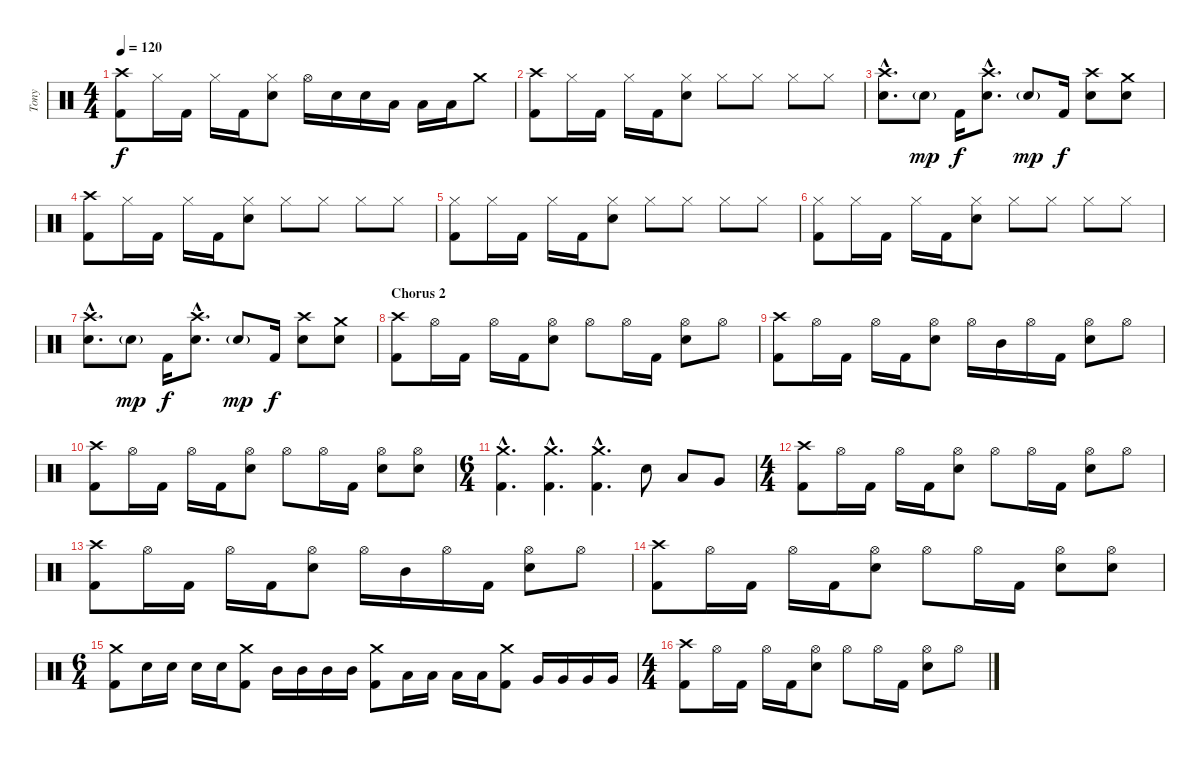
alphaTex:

\track ("Tony" "Tony") {instrument percussion}
\staff {score}
\articulation defaults
\ts (4 4)
\tempo 120
\clef neutral
\ks c
("Crash high (hit)" "Kick (hit) 2").8{dy f} "Hi-Hat (closed)".16 "Kick (hit) 2".16 "Hi-Hat (closed)".16 "Kick (hit) 2".16 ("Hi-Hat (closed)" "Snare (hit) 2").8 "Hi-Hat (open)".16 "Snare (hit) 2".16 "Snare (hit) 2".16 "Low Tom (hit)".16 "Low Tom (hit)".16 "Low Tom (hit)".16 "Crash medium (hit)".8 |
("Crash high (hit)" "Kick (hit) 2").8 "Hi-Hat (closed)".16 "Kick (hit) 2".16 "Hi-Hat (closed)".16 "Kick (hit) 2".16 ("Hi-Hat (closed)" "Snare (hit) 2").8 "Hi-Hat (closed)".8 "Hi-Hat (closed)".8 "Hi-Hat (closed)".8 "Hi-Hat (closed)".8 |
("Crash high (hit)"{hac} "Snare (hit) 2"{hac}).8{d} "Snare (hit) 2"{g}.8{dy mp} "Kick (hit) 2".16{dy f} ("Crash high (hit)"{hac} "Snare (hit) 2"{hac}).8{d} "Snare (hit) 2"{g}.8{dy mp} "Kick (hit) 2".16{dy f} ("Crash high (hit)" "Snare (hit) 2").8 ("Crash medium (hit)" "Snare (hit) 2").8 |
("Crash high (hit)" "Kick (hit) 2").8 "Hi-Hat (closed)".16 "Kick (hit) 2".16 "Hi-Hat (closed)".16 "Kick (hit) 2".16 ("Hi-Hat (closed)" "Snare (hit) 2").8 "Hi-Hat (closed)".8 "Hi-Hat (closed)".8 "Hi-Hat (closed)".8 "Hi-Hat (closed)".8 |
("Hi-Hat (closed)" "Kick (hit) 2").8 "Hi-Hat (closed)".16 "Kick (hit) 2".16 "Hi-Hat (closed)".16 "Kick (hit) 2".16 ("Hi-Hat (closed)" "Snare (hit) 2").8 "Hi-Hat (closed)".8 "Hi-Hat (closed)".8 "Hi-Hat (closed)".8 "Hi-Hat (closed)".8 |
("Hi-Hat (closed)" "Kick (hit) 2").8 "Hi-Hat (closed)".16 "Kick (hit) 2".16 "Hi-Hat (closed)".16 "Kick (hit) 2".16 ("Hi-Hat (closed)" "Snare (hit) 2").8 "Hi-Hat (closed)".8 "Hi-Hat (closed)".8 "Hi-Hat (closed)".8 "Hi-Hat (closed)".8 |
("Crash high (hit)"{hac} "Snare (hit) 2"{hac}).8{d} "Snare (hit) 2"{g}.8{dy mp} "Kick (hit) 2".16{dy f} ("Crash high (hit)"{hac} "Snare (hit) 2"{hac}).8{d} "Snare (hit) 2"{g}.8{dy mp} "Kick (hit) 2".16{dy f} ("Crash high (hit)" "Snare (hit) 2").8 ("Crash medium (hit)" "Snare (hit) 2").8 |
\section ("" "Chorus 2")
("Crash high (hit)" "Kick (hit) 2").8 "Hi-Hat (open)".16 "Kick (hit) 2".16 "Hi-Hat (open)".16 "Kick (hit) 2".16 ("Hi-Hat (open)" "Snare (hit) 2").8 "Hi-Hat (open)".8 "Hi-Hat (open)".16 "Kick (hit) 2".16 ("Hi-Hat (open)" "Snare (hit) 2").8 "Hi-Hat (open)".8 |
("Crash high (hit)" "Kick (hit) 2").8 "Hi-Hat (open)".16 "Kick (hit) 2".16 "Hi-Hat (open)".16 "Kick (hit) 2".16 ("Hi-Hat (open)" "Snare (hit) 2").8 "Hi-Hat (open)".16 "Mid Tom (hit)".16 "Hi-Hat (open)".16 "Kick (hit) 2".16 ("Hi-Hat (open)" "Snare (hit) 2").8 "Hi-Hat (open)".8 |
("Crash high (hit)" "Kick (hit) 2").8 "Hi-Hat (open)".16 "Kick (hit) 2".16 "Hi-Hat (open)".16 "Kick (hit) 2".16 ("Hi-Hat (open)" "Snare (hit) 2").8 "Hi-Hat (open)".8 "Hi-Hat (open)".16 "Kick (hit) 2".16 ("Hi-Hat (open)" "Snare (hit) 2").8 ("Hi-Hat (open)" "Snare (hit) 2").8 |
\ts (6 4)
("Crash medium (hit)"{hac} "Kick (hit) 2"{hac}).4{d} ("Crash medium (hit)"{hac} "Kick (hit) 2"{hac}).4{d} ("Crash medium (hit)"{hac} "Kick (hit) 2"{hac}).4{d} "Snare (hit) 2".8 "Low Tom (hit)".8 "Very Low Tom (hit)".8 |
\ts (4 4)
("Crash high (hit)" "Kick (hit) 2").8 "Hi-Hat (open)".16 "Kick (hit) 2".16 "Hi-Hat (open)".16 "Kick (hit) 2".16 ("Hi-Hat (open)" "Snare (hit) 2").8 "Hi-Hat (open)".8 "Hi-Hat (open)".16 "Kick (hit) 2".16 ("Hi-Hat (open)" "Snare (hit) 2").8 "Hi-Hat (open)".8 |
("Crash high (hit)" "Kick (hit) 2").8 "Hi-Hat (open)".16 "Kick (hit) 2".16 "Hi-Hat (open)".16 "Kick (hit) 2".16 ("Hi-Hat (open)" "Snare (hit) 2").8 "Hi-Hat (open)".16 "Mid Tom (hit)".16 "Hi-Hat (open)".16 "Kick (hit) 2".16 ("Hi-Hat (open)" "Snare (hit) 2").8 "Hi-Hat (open)".8 |
("Crash high (hit)" "Kick (hit) 2").8 "Hi-Hat (open)".16 "Kick (hit) 2".16 "Hi-Hat (open)".16 "Kick (hit) 2".16 ("Hi-Hat (open)" "Snare (hit) 2").8 "Hi-Hat (open)".8 "Hi-Hat (open)".16 "Kick (hit) 2".16 ("Hi-Hat (open)" "Snare (hit) 2").8 ("Hi-Hat (open)" "Snare (hit) 2").8 |
\ts (6 4)
("Crash medium (hit)" "Kick (hit) 2").8 "Snare (hit) 2".16 "Snare (hit) 2".16 "Snare (hit) 2".16 "Snare (hit) 2".16 ("Crash medium (hit)" "Kick (hit) 2").8 "Mid Tom (hit)".16 "Mid Tom (hit)".16 "Mid Tom (hit)".16 "Mid Tom (hit)".16 ("Crash medium (hit)" "Kick (hit) 2").8 "Low Tom (hit)".16 "Low Tom (hit)".16 "Low Tom (hit)".16 "Low Tom (hit)".16 ("Crash medium (hit)" "Kick (hit) 2").8 "Very Low Tom (hit)".16 "Very Low Tom (hit)".16 "Very Low Tom (hit)".16 "Very Low Tom (hit)".16 |
\ts (4 4)
("Crash high (hit)" "Kick (hit) 2").8 "Hi-Hat (open)".16 "Kick (hit) 2".16 "Hi-Hat (open)".16 "Kick (hit) 2".16 ("Hi-Hat (open)" "Snare (hit) 2").8 "Hi-Hat (open)".8 "Hi-Hat (open)".16 "Kick (hit) 2".16 ("Hi-Hat (open)" "Snare (hit) 2").8 "Hi-Hat (open)".8
